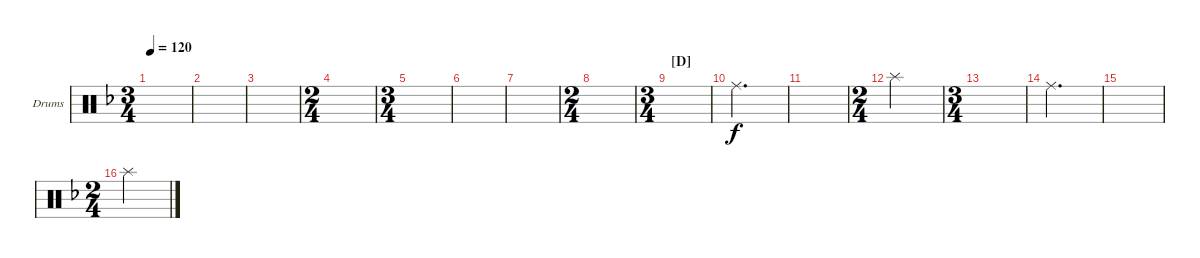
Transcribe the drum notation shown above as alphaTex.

\defaultSystemsLayout 4
\bracketExtendMode groupsimilarinstruments
\firstSystemTrackNameOrientation horizontal
\otherSystemsTrackNameOrientation horizontal
\track ("Drumkit" "Drums") {instrument percussion}
\staff {score}
\articulation defaults
\ts (3 4)
\tempo 120
\clef neutral
\scale
0.5
\ks f
|
\scale
0.25 |
\scale
0.25 |
\ts (2 4)
\scale
0.4 |
\ts (3 4)
\scale
0.4 |
\scale
0.2 |
\scale
0.2 |
\ts (2 4)
\scale
0.4 |
\ts (3 4)
\section ("D" "")
\scale
0.4 |
\scale
0.25 "Ride (middle)".2{d} |
\scale
0.25 |
\ts (2 4)
\scale
0.5 "Splash (hit)".2 |
\ts (3 4)
\scale
0.5 |
\scale
0.25 "Ride (middle)".2{d} |
\scale
0.25 |
\ts (2 4)
\scale
0.4 "Splash (hit)".2
